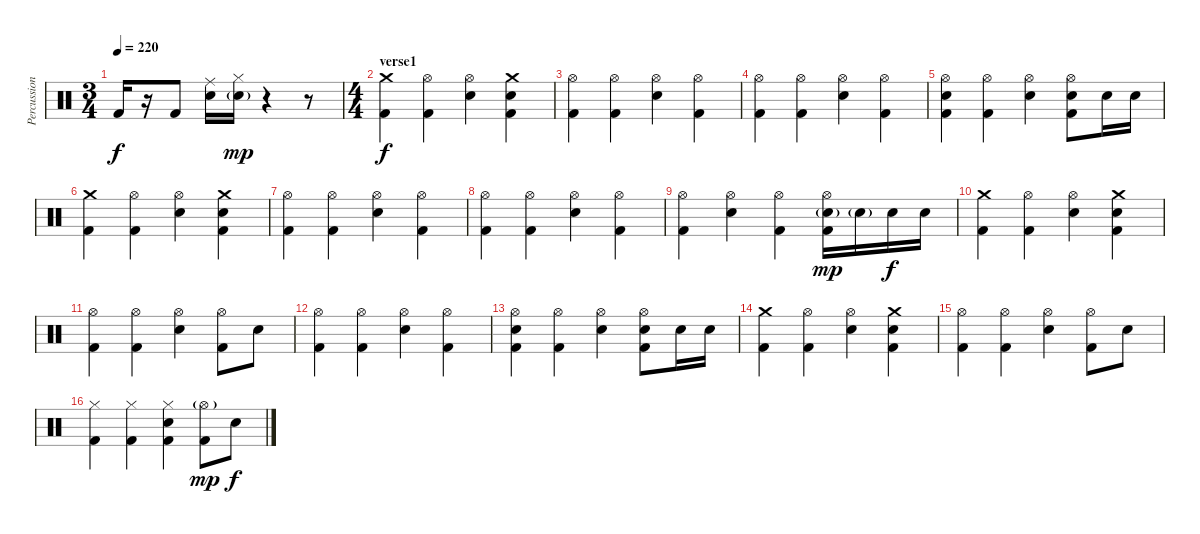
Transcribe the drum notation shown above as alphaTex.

\track ("Percussions" "Percussion") {instrument percussion}
\staff {score}
\articulation defaults
\ts (3 4)
\tempo 220
\clef neutral
\ks c "Kick (hit) 2".16{dy f}
r.16 "Kick (hit) 2".8 ("Snare (hit) 2" "Ride (middle)").16 ("Snare (hit) 2"{g} "Hi-Hat (closed)").16{dy mp} r.4 r.8 |
\ts (4 4)
\section ("" "verse1")
("Crash medium (hit)" "Kick (hit) 2").4{dy f} ("Hi-Hat (open)" "Kick (hit) 2").4 ("Snare (hit) 2" "Hi-Hat (open)").4 ("Snare (hit) 2" "Crash medium (hit)" "Kick (hit) 2").4 |
("Hi-Hat (open)" "Kick (hit) 2").4 ("Hi-Hat (open)" "Kick (hit) 2").4 ("Snare (hit) 2" "Hi-Hat (open)").4 ("Hi-Hat (open)" "Kick (hit) 2").4 |
("Hi-Hat (open)" "Kick (hit) 2").4 ("Hi-Hat (open)" "Kick (hit) 2").4 ("Snare (hit) 2" "Hi-Hat (open)").4 ("Hi-Hat (open)" "Kick (hit) 2").4 |
("Snare (hit) 2" "Hi-Hat (open)" "Kick (hit) 2").4 ("Hi-Hat (open)" "Kick (hit) 2").4 ("Snare (hit) 2" "Hi-Hat (open)").4 ("Snare (hit) 2" "Hi-Hat (open)" "Kick (hit) 2").8 "Snare (hit) 2".16 "Snare (hit) 2".16 |
("Crash medium (hit)" "Kick (hit) 2").4 ("Hi-Hat (open)" "Kick (hit) 2").4 ("Snare (hit) 2" "Hi-Hat (open)").4 ("Snare (hit) 2" "Crash medium (hit)" "Kick (hit) 2").4 |
("Hi-Hat (open)" "Kick (hit) 2").4 ("Hi-Hat (open)" "Kick (hit) 2").4 ("Snare (hit) 2" "Hi-Hat (open)").4 ("Hi-Hat (open)" "Kick (hit) 2").4 |
("Hi-Hat (open)" "Kick (hit) 2").4 ("Hi-Hat (open)" "Kick (hit) 2").4 ("Snare (hit) 2" "Hi-Hat (open)").4 ("Hi-Hat (open)" "Kick (hit) 2").4 |
("Hi-Hat (open)" "Kick (hit) 2").4 ("Snare (hit) 2" "Hi-Hat (open)").4 ("Hi-Hat (open)" "Kick (hit) 2").4 ("Snare (hit) 2"{g} "Hi-Hat (open)" "Kick (hit) 2").16{dy mp} "Snare (hit) 2"{g}.16 "Snare (hit) 2".16{dy f} "Snare (hit) 2".16 |
("Crash medium (hit)" "Kick (hit) 2").4 ("Hi-Hat (open)" "Kick (hit) 2").4 ("Snare (hit) 2" "Hi-Hat (open)").4 ("Snare (hit) 2" "Crash medium (hit)" "Kick (hit) 2").4 |
("Hi-Hat (open)" "Kick (hit) 2").4 ("Hi-Hat (open)" "Kick (hit) 2").4 ("Snare (hit) 2" "Hi-Hat (open)").4 ("Hi-Hat (open)" "Kick (hit) 2").8 "Snare (hit) 2".8 |
("Hi-Hat (open)" "Kick (hit) 2").4 ("Hi-Hat (open)" "Kick (hit) 2").4 ("Snare (hit) 2" "Hi-Hat (open)").4 ("Hi-Hat (open)" "Kick (hit) 2").4 |
("Snare (hit) 2" "Hi-Hat (open)" "Kick (hit) 2").4 ("Hi-Hat (open)" "Kick (hit) 2").4 ("Snare (hit) 2" "Hi-Hat (open)").4 ("Snare (hit) 2" "Hi-Hat (open)" "Kick (hit) 2").8 "Snare (hit) 2".16 "Snare (hit) 2".16 |
("Crash medium (hit)" "Kick (hit) 2").4 ("Hi-Hat (open)" "Kick (hit) 2").4 ("Snare (hit) 2" "Hi-Hat (open)").4 ("Snare (hit) 2" "Crash medium (hit)" "Kick (hit) 2").4 |
("Hi-Hat (open)" "Kick (hit) 2").4 ("Hi-Hat (open)" "Kick (hit) 2").4 ("Snare (hit) 2" "Hi-Hat (open)").4 ("Hi-Hat (open)" "Kick (hit) 2").8 "Snare (hit) 2".8 |
("Hi-Hat (closed)" "Kick (hit) 2").4 ("Hi-Hat (closed)" "Kick (hit) 2").4 ("Snare (hit) 2" "Hi-Hat (closed)" "Kick (hit) 2").4 ("Hi-Hat (open)"{g} "Kick (hit) 2").8{dy mp} "Snare (hit) 2".8{dy f}
